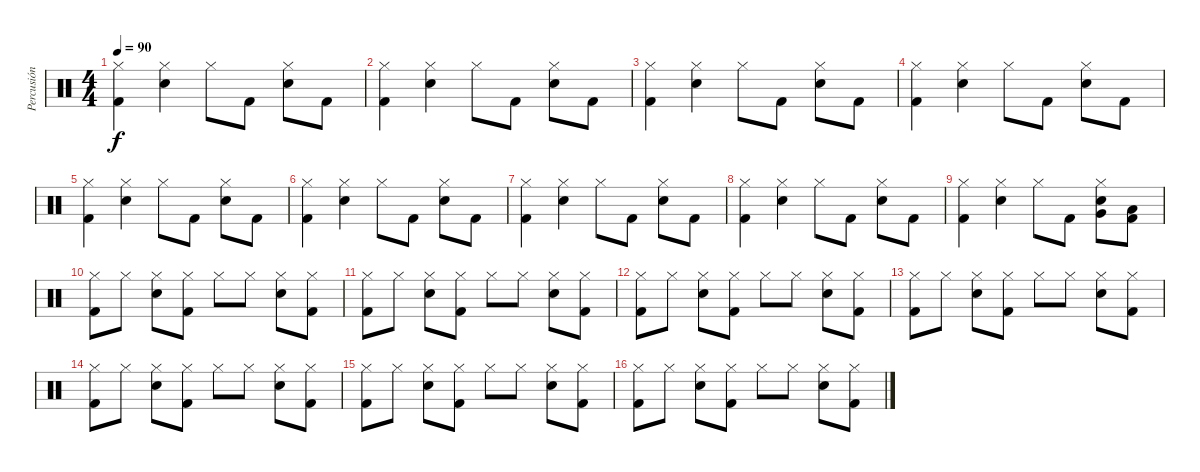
\track ("Percusión" "Percusión") {instrument percussion}
\staff {score}
\articulation defaults
\ts (4 4)
\tempo 90
\clef neutral
\ks c
("Hi-Hat (closed)" "Kick (hit) 2").4{dy f} ("Hi-Hat (closed)" "Snare (hit) 2").4 "Hi-Hat (closed)".8 "Kick (hit) 2".8 ("Hi-Hat (closed)" "Snare (hit) 2").8 "Kick (hit) 2".8 |
("Hi-Hat (closed)" "Kick (hit) 2").4 ("Hi-Hat (closed)" "Snare (hit) 2").4 "Hi-Hat (closed)".8 "Kick (hit) 2".8 ("Hi-Hat (closed)" "Snare (hit) 2").8 "Kick (hit) 2".8 |
("Hi-Hat (closed)" "Kick (hit) 2").4 ("Hi-Hat (closed)" "Snare (hit) 2").4 "Hi-Hat (closed)".8 "Kick (hit) 2".8 ("Hi-Hat (closed)" "Snare (hit) 2").8 "Kick (hit) 2".8 |
("Hi-Hat (closed)" "Kick (hit) 2").4 ("Hi-Hat (closed)" "Snare (hit) 2").4 "Hi-Hat (closed)".8 "Kick (hit) 2".8 ("Hi-Hat (closed)" "Snare (hit) 2").8 "Kick (hit) 2".8 |
("Hi-Hat (closed)" "Kick (hit) 2").4 ("Hi-Hat (closed)" "Snare (hit) 2").4 "Hi-Hat (closed)".8 "Kick (hit) 2".8 ("Hi-Hat (closed)" "Snare (hit) 2").8 "Kick (hit) 2".8 |
("Hi-Hat (closed)" "Kick (hit) 2").4 ("Hi-Hat (closed)" "Snare (hit) 2").4 "Hi-Hat (closed)".8 "Kick (hit) 2".8 ("Hi-Hat (closed)" "Snare (hit) 2").8 "Kick (hit) 2".8 |
("Hi-Hat (closed)" "Kick (hit) 2").4 ("Hi-Hat (closed)" "Snare (hit) 2").4 "Hi-Hat (closed)".8 "Kick (hit) 2".8 ("Hi-Hat (closed)" "Snare (hit) 2").8 "Kick (hit) 2".8 |
("Hi-Hat (closed)" "Kick (hit) 2").4 ("Hi-Hat (closed)" "Snare (hit) 2").4 "Hi-Hat (closed)".8 "Kick (hit) 2".8 ("Hi-Hat (closed)" "Snare (hit) 2").8 "Kick (hit) 2".8 |
("Hi-Hat (closed)" "Kick (hit) 2").4 ("Hi-Hat (closed)" "Snare (hit) 2").4 "Hi-Hat (closed)".8 "Kick (hit) 2".8 ("Hi-Hat (closed)" "Snare (hit) 2" "Very Low Tom (hit)").8 ("Kick (hit) 2" "Low Floor Tom (hit)").8 |
("Hi-Hat (closed)" "Kick (hit) 2").8 "Hi-Hat (closed)".8 ("Hi-Hat (closed)" "Snare (hit) 2").8 ("Hi-Hat (closed)" "Kick (hit) 2").8 "Hi-Hat (closed)".8 "Hi-Hat (closed)".8 ("Hi-Hat (closed)" "Snare (hit) 2").8 ("Hi-Hat (closed)" "Kick (hit) 2").8 |
("Hi-Hat (closed)" "Kick (hit) 2").8 "Hi-Hat (closed)".8 ("Hi-Hat (closed)" "Snare (hit) 2").8 ("Hi-Hat (closed)" "Kick (hit) 2").8 "Hi-Hat (closed)".8 "Hi-Hat (closed)".8 ("Hi-Hat (closed)" "Snare (hit) 2").8 ("Hi-Hat (closed)" "Kick (hit) 2").8 |
("Hi-Hat (closed)" "Kick (hit) 2").8 "Hi-Hat (closed)".8 ("Hi-Hat (closed)" "Snare (hit) 2").8 ("Hi-Hat (closed)" "Kick (hit) 2").8 "Hi-Hat (closed)".8 "Hi-Hat (closed)".8 ("Hi-Hat (closed)" "Snare (hit) 2").8 ("Hi-Hat (closed)" "Kick (hit) 2").8 |
("Hi-Hat (closed)" "Kick (hit) 2").8 "Hi-Hat (closed)".8 ("Hi-Hat (closed)" "Snare (hit) 2").8 ("Hi-Hat (closed)" "Kick (hit) 2").8 "Hi-Hat (closed)".8 "Hi-Hat (closed)".8 ("Hi-Hat (closed)" "Snare (hit) 2").8 ("Hi-Hat (closed)" "Kick (hit) 2").8 |
("Hi-Hat (closed)" "Kick (hit) 2").8 "Hi-Hat (closed)".8 ("Hi-Hat (closed)" "Snare (hit) 2").8 ("Hi-Hat (closed)" "Kick (hit) 2").8 "Hi-Hat (closed)".8 "Hi-Hat (closed)".8 ("Hi-Hat (closed)" "Snare (hit) 2").8 ("Hi-Hat (closed)" "Kick (hit) 2").8 |
("Hi-Hat (closed)" "Kick (hit) 2").8 "Hi-Hat (closed)".8 ("Hi-Hat (closed)" "Snare (hit) 2").8 ("Hi-Hat (closed)" "Kick (hit) 2").8 "Hi-Hat (closed)".8 "Hi-Hat (closed)".8 ("Hi-Hat (closed)" "Snare (hit) 2").8 ("Hi-Hat (closed)" "Kick (hit) 2").8 |
("Hi-Hat (closed)" "Kick (hit) 2").8 "Hi-Hat (closed)".8 ("Hi-Hat (closed)" "Snare (hit) 2").8 ("Hi-Hat (closed)" "Kick (hit) 2").8 "Hi-Hat (closed)".8 "Hi-Hat (closed)".8 ("Hi-Hat (closed)" "Snare (hit) 2").8 ("Hi-Hat (closed)" "Kick (hit) 2").8
